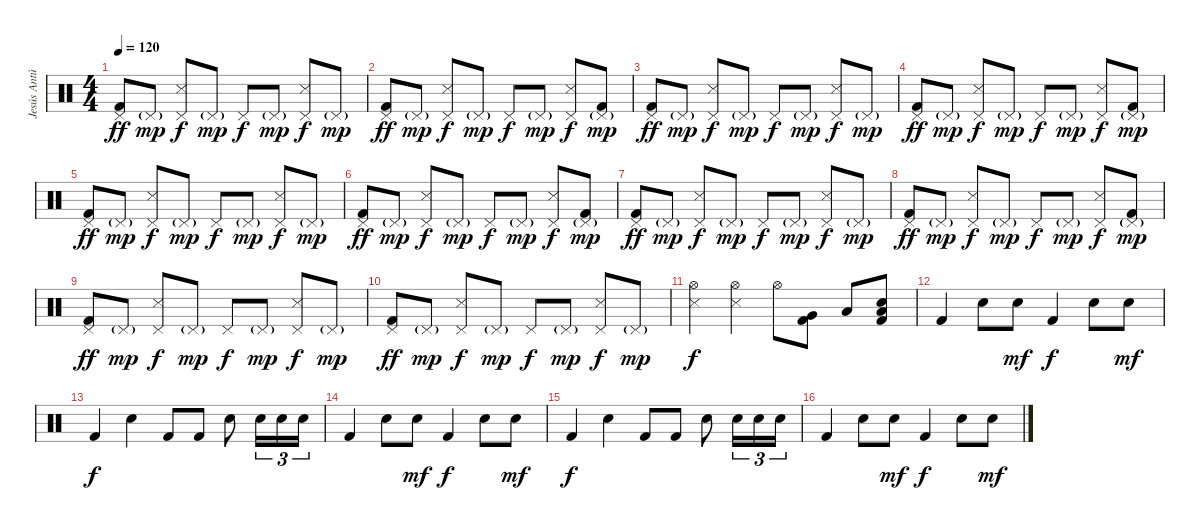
\track ("Jesús Antúnez" "Jesús Antú") {instrument percussion}
\staff {score}
\articulation defaults
\ts (4 4)
\tempo 120
\clef neutral
\ks c
("Kick (hit) 2" "Pedal Hi-Hat (hit)").8{dy ff} "Pedal Hi-Hat (hit)"{g}.8{dy mp} ("Snare (side stick) 3" "Pedal Hi-Hat (hit)").8{dy f} "Pedal Hi-Hat (hit)"{g}.8{dy mp} "Pedal Hi-Hat (hit)".8{dy f} "Pedal Hi-Hat (hit)"{g}.8{dy mp} ("Snare (side stick) 3" "Pedal Hi-Hat (hit)").8{dy f} "Pedal Hi-Hat (hit)"{g}.8{dy mp} |
("Kick (hit) 2" "Pedal Hi-Hat (hit)").8{dy ff} "Pedal Hi-Hat (hit)"{g}.8{dy mp} ("Snare (side stick) 3" "Pedal Hi-Hat (hit)").8{dy f} "Pedal Hi-Hat (hit)"{g}.8{dy mp} "Pedal Hi-Hat (hit)".8{dy f} "Pedal Hi-Hat (hit)"{g}.8{dy mp} ("Snare (side stick) 3" "Pedal Hi-Hat (hit)").8{dy f} ("Kick (hit) 2" "Pedal Hi-Hat (hit)"{g}).8{dy mp} |
("Kick (hit) 2" "Pedal Hi-Hat (hit)").8{dy ff} "Pedal Hi-Hat (hit)"{g}.8{dy mp} ("Snare (side stick) 3" "Pedal Hi-Hat (hit)").8{dy f} "Pedal Hi-Hat (hit)"{g}.8{dy mp} "Pedal Hi-Hat (hit)".8{dy f} "Pedal Hi-Hat (hit)"{g}.8{dy mp} ("Snare (side stick) 3" "Pedal Hi-Hat (hit)").8{dy f} "Pedal Hi-Hat (hit)"{g}.8{dy mp} |
("Kick (hit) 2" "Pedal Hi-Hat (hit)").8{dy ff} "Pedal Hi-Hat (hit)"{g}.8{dy mp} ("Snare (side stick) 3" "Pedal Hi-Hat (hit)").8{dy f} "Pedal Hi-Hat (hit)"{g}.8{dy mp} "Pedal Hi-Hat (hit)".8{dy f} "Pedal Hi-Hat (hit)"{g}.8{dy mp} ("Snare (side stick) 3" "Pedal Hi-Hat (hit)").8{dy f} ("Kick (hit) 2" "Pedal Hi-Hat (hit)"{g}).8{dy mp} |
("Kick (hit) 2" "Pedal Hi-Hat (hit)").8{dy ff} "Pedal Hi-Hat (hit)"{g}.8{dy mp} ("Snare (side stick) 3" "Pedal Hi-Hat (hit)").8{dy f} "Pedal Hi-Hat (hit)"{g}.8{dy mp} "Pedal Hi-Hat (hit)".8{dy f} "Pedal Hi-Hat (hit)"{g}.8{dy mp} ("Snare (side stick) 3" "Pedal Hi-Hat (hit)").8{dy f} "Pedal Hi-Hat (hit)"{g}.8{dy mp} |
("Kick (hit) 2" "Pedal Hi-Hat (hit)").8{dy ff} "Pedal Hi-Hat (hit)"{g}.8{dy mp} ("Snare (side stick) 3" "Pedal Hi-Hat (hit)").8{dy f} "Pedal Hi-Hat (hit)"{g}.8{dy mp} "Pedal Hi-Hat (hit)".8{dy f} "Pedal Hi-Hat (hit)"{g}.8{dy mp} ("Snare (side stick) 3" "Pedal Hi-Hat (hit)").8{dy f} ("Kick (hit) 2" "Pedal Hi-Hat (hit)"{g}).8{dy mp} |
("Kick (hit) 2" "Pedal Hi-Hat (hit)").8{dy ff} "Pedal Hi-Hat (hit)"{g}.8{dy mp} ("Snare (side stick) 3" "Pedal Hi-Hat (hit)").8{dy f} "Pedal Hi-Hat (hit)"{g}.8{dy mp} "Pedal Hi-Hat (hit)".8{dy f} "Pedal Hi-Hat (hit)"{g}.8{dy mp} ("Snare (side stick) 3" "Pedal Hi-Hat (hit)").8{dy f} "Pedal Hi-Hat (hit)"{g}.8{dy mp} |
("Kick (hit) 2" "Pedal Hi-Hat (hit)").8{dy ff} "Pedal Hi-Hat (hit)"{g}.8{dy mp} ("Snare (side stick) 3" "Pedal Hi-Hat (hit)").8{dy f} "Pedal Hi-Hat (hit)"{g}.8{dy mp} "Pedal Hi-Hat (hit)".8{dy f} "Pedal Hi-Hat (hit)"{g}.8{dy mp} ("Snare (side stick) 3" "Pedal Hi-Hat (hit)").8{dy f} ("Kick (hit) 2" "Pedal Hi-Hat (hit)"{g}).8{dy mp} |
("Kick (hit) 2" "Pedal Hi-Hat (hit)").8{dy ff} "Pedal Hi-Hat (hit)"{g}.8{dy mp} ("Snare (side stick) 3" "Pedal Hi-Hat (hit)").8{dy f} "Pedal Hi-Hat (hit)"{g}.8{dy mp} "Pedal Hi-Hat (hit)".8{dy f} "Pedal Hi-Hat (hit)"{g}.8{dy mp} ("Snare (side stick) 3" "Pedal Hi-Hat (hit)").8{dy f} "Pedal Hi-Hat (hit)"{g}.8{dy mp} |
("Kick (hit) 2" "Pedal Hi-Hat (hit)").8{dy ff} "Pedal Hi-Hat (hit)"{g}.8{dy mp} ("Snare (side stick) 3" "Pedal Hi-Hat (hit)").8{dy f} "Pedal Hi-Hat (hit)"{g}.8{dy mp} "Pedal Hi-Hat (hit)".8{dy f} "Pedal Hi-Hat (hit)"{g}.8{dy mp} ("Snare (side stick) 3" "Pedal Hi-Hat (hit)").8{dy f} "Pedal Hi-Hat (hit)"{g}.8{dy mp} |
("Snare (side stick) 3" "Hi-Hat (open)").4{dy f} ("Snare (side stick) 3" "Hi-Hat (open)").4 "Hi-Hat (open)".8 ("Kick (hit) 2" "Very Low Tom (hit)").8 "Low Tom (hit)".8 ("Kick (hit) 2" "Electric Snare (hit)" "Low Tom (hit)").8 |
"Kick (hit) 2".4 "Electric Snare (hit)".8 "Electric Snare (hit)".8{dy mf} "Kick (hit) 2".4{dy f} "Electric Snare (hit)".8 "Electric Snare (hit)".8{dy mf} |
"Kick (hit) 2".4{dy f} "Electric Snare (hit)".4 "Kick (hit) 2".8 "Kick (hit) 2".8 "Electric Snare (hit)".8 "Electric Snare (hit)".16{tu (3 2)} "Electric Snare (hit)".16{tu (3 2)} "Electric Snare (hit)".16{tu (3 2)} |
"Kick (hit) 2".4 "Electric Snare (hit)".8 "Electric Snare (hit)".8{dy mf} "Kick (hit) 2".4{dy f} "Electric Snare (hit)".8 "Electric Snare (hit)".8{dy mf} |
"Kick (hit) 2".4{dy f} "Electric Snare (hit)".4 "Kick (hit) 2".8 "Kick (hit) 2".8 "Electric Snare (hit)".8 "Electric Snare (hit)".16{tu (3 2)} "Electric Snare (hit)".16{tu (3 2)} "Electric Snare (hit)".16{tu (3 2)} |
"Kick (hit) 2".4 "Electric Snare (hit)".8 "Electric Snare (hit)".8{dy mf} "Kick (hit) 2".4{dy f} "Electric Snare (hit)".8 "Electric Snare (hit)".8{dy mf}
